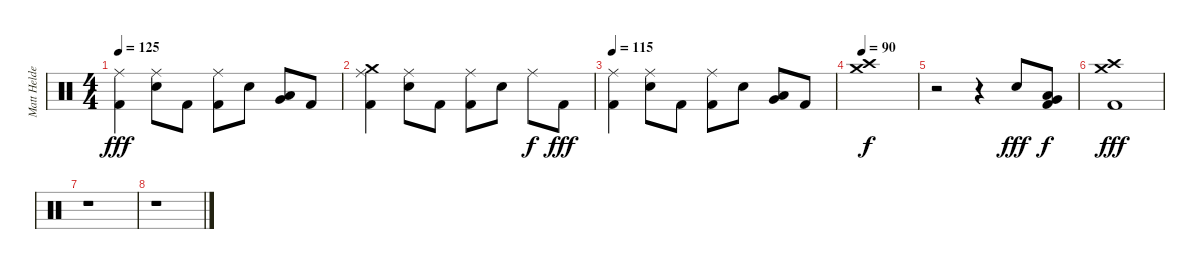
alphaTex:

\track ("Matt Helders" "Matt Helde") {instrument percussion}
\staff {score}
\articulation defaults
\ts (4 4)
\tempo 125
\clef neutral
\ks c
("Ride (middle)" "Kick (hit) 2").4{dy fff} ("Ride (middle)" "Electric Snare (hit)").8 "Kick (hit) 2".8 ("Ride (middle)" "Kick (hit) 2").8 "Electric Snare (hit)".8 ("Very Low Tom (hit)" "Low Floor Tom (hit)").8 "Kick (hit) 2".8 |
("Crash medium (hit)" "Ride (middle)" "Kick (hit) 2").4 ("Ride (middle)" "Electric Snare (hit)").8 "Kick (hit) 2".8 ("Ride (middle)" "Kick (hit) 2").8 "Electric Snare (hit)".8 "Ride (middle)".8{dy f} "Kick (hit) 2".8{dy fff} |
\tempo 115
("Ride (middle)" "Kick (hit) 2").4 ("Ride (middle)" "Electric Snare (hit)").8 "Kick (hit) 2".8 ("Ride (middle)" "Kick (hit) 2").8 "Electric Snare (hit)".8 ("Very Low Tom (hit)" "Low Floor Tom (hit)").8 "Kick (hit) 2".8 |
\tempo 90
("Crash medium (hit)" "Crash high (hit)").1{dy f} |
r.2 r.4 "Electric Snare (hit)".8{dy fff} ("Very Low Tom (hit)" "Low Floor Tom (hit)" "Kick (hit) 2").8{dy f} |
("Crash medium (hit)" "Crash high (hit)" "Kick (hit) 2").1{dy fff} |
r.1 |
r.1
